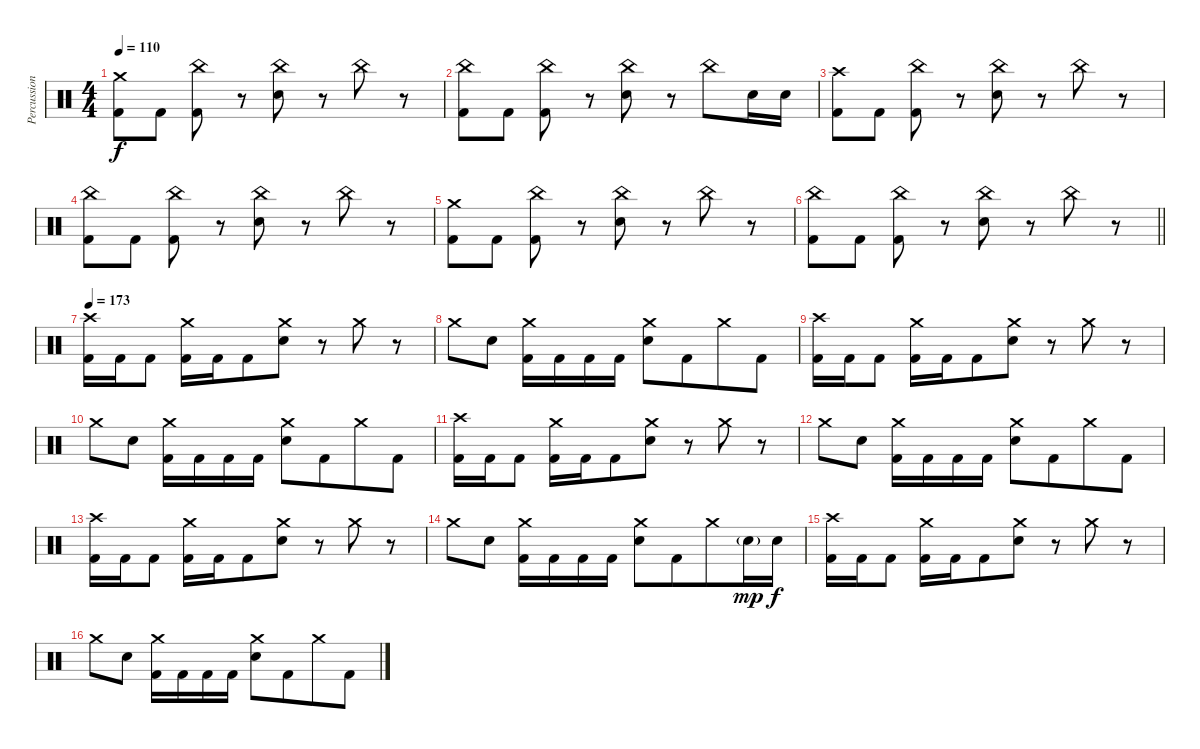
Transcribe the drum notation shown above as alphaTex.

\track ("Percussion" "Percussion") {instrument percussion}
\staff {score}
\articulation defaults
\ts (4 4)
\tempo 110
\clef neutral
\ks c
("Crash medium (hit)" "Kick (hit) 2").8{dy f beam merge} "Kick (hit) 2".8 ("China (hit)" "Kick (hit) 2").8 r.8{beam merge} ("China (hit)" "Electric Snare (hit)").8 r.8{beam merge} "China (hit)".8{beam merge} r.8 |
("China (hit)" "Kick (hit) 2").8{beam merge} "Kick (hit) 2".8 ("China (hit)" "Kick (hit) 2").8 r.8{beam merge} ("China (hit)" "Electric Snare (hit)").8 r.8{beam merge} "China (hit)".8{beam merge} "Electric Snare (hit)".16{beam merge} "Electric Snare (hit)".16 |
("Crash high (hit)" "Kick (hit) 2").8{beam merge} "Kick (hit) 2".8 ("China (hit)" "Kick (hit) 2").8 r.8{beam merge} ("China (hit)" "Electric Snare (hit)").8 r.8{beam merge} "China (hit)".8{beam merge} r.8 |
("China (hit)" "Kick (hit) 2").8{beam merge} "Kick (hit) 2".8 ("China (hit)" "Kick (hit) 2").8 r.8{beam merge} ("China (hit)" "Electric Snare (hit)").8 r.8{beam merge} "China (hit)".8{beam merge} r.8 |
("Crash medium (hit)" "Kick (hit) 2").8{beam merge} "Kick (hit) 2".8 ("China (hit)" "Kick (hit) 2").8 r.8{beam merge} ("China (hit)" "Electric Snare (hit)").8 r.8{beam merge} "China (hit)".8{beam merge} r.8 |
\barLineRight lightlight
("China (hit)" "Kick (hit) 2").8{beam merge} "Kick (hit) 2".8 ("China (hit)" "Kick (hit) 2").8 r.8{beam merge} ("China (hit)" "Electric Snare (hit)").8 r.8{beam merge} "China (hit)".8{beam merge} r.8 |
\section ("" "")
\tempo 173
("Crash high (hit)" "Kick (hit) 2").16 "Kick (hit) 2".16 "Kick (hit) 2".8 ("Crash medium (hit)" "Kick (hit) 2").16 "Kick (hit) 2".16 "Kick (hit) 2".8{beam merge} ("Crash medium (hit)" "Electric Snare (hit)").8 r.8 "Crash medium (hit)".8 r.8 |
"Crash medium (hit)".8 "Electric Snare (hit)".8 ("Crash medium (hit)" "Kick (hit) 2").16 "Kick (hit) 2".16 "Kick (hit) 2".16 "Kick (hit) 2".16 ("Crash medium (hit)" "Electric Snare (hit)").8{beam merge} "Kick (hit) 2".8{beam merge} "Crash medium (hit)".8{beam merge} "Kick (hit) 2".8 |
("Crash high (hit)" "Kick (hit) 2").16 "Kick (hit) 2".16 "Kick (hit) 2".8 ("Crash medium (hit)" "Kick (hit) 2").16 "Kick (hit) 2".16 "Kick (hit) 2".8{beam merge} ("Crash medium (hit)" "Electric Snare (hit)").8 r.8 "Crash medium (hit)".8 r.8 |
"Crash medium (hit)".8 "Electric Snare (hit)".8 ("Crash medium (hit)" "Kick (hit) 2").16 "Kick (hit) 2".16 "Kick (hit) 2".16 "Kick (hit) 2".16 ("Crash medium (hit)" "Electric Snare (hit)").8{beam merge} "Kick (hit) 2".8{beam merge} "Crash medium (hit)".8{beam merge} "Kick (hit) 2".8 |
("Crash high (hit)" "Kick (hit) 2").16 "Kick (hit) 2".16 "Kick (hit) 2".8 ("Crash medium (hit)" "Kick (hit) 2").16 "Kick (hit) 2".16 "Kick (hit) 2".8{beam merge} ("Crash medium (hit)" "Electric Snare (hit)").8 r.8 "Crash medium (hit)".8 r.8 |
"Crash medium (hit)".8 "Electric Snare (hit)".8 ("Crash medium (hit)" "Kick (hit) 2").16 "Kick (hit) 2".16 "Kick (hit) 2".16 "Kick (hit) 2".16 ("Crash medium (hit)" "Electric Snare (hit)").8{beam merge} "Kick (hit) 2".8{beam merge} "Crash medium (hit)".8{beam merge} "Kick (hit) 2".8 |
("Crash high (hit)" "Kick (hit) 2").16 "Kick (hit) 2".16 "Kick (hit) 2".8 ("Crash medium (hit)" "Kick (hit) 2").16 "Kick (hit) 2".16 "Kick (hit) 2".8{beam merge} ("Crash medium (hit)" "Electric Snare (hit)").8 r.8 "Crash medium (hit)".8 r.8 |
"Crash medium (hit)".8 "Electric Snare (hit)".8 ("Crash medium (hit)" "Kick (hit) 2").16 "Kick (hit) 2".16 "Kick (hit) 2".16 "Kick (hit) 2".16 ("Crash medium (hit)" "Electric Snare (hit)").8{beam merge} "Kick (hit) 2".8{beam merge} "Crash medium (hit)".8{beam merge} "Electric Snare (hit)"{g}.16{dy mp beam merge} "Electric Snare (hit)".16{dy f} |
("Crash high (hit)" "Kick (hit) 2").16 "Kick (hit) 2".16 "Kick (hit) 2".8 ("Crash medium (hit)" "Kick (hit) 2").16 "Kick (hit) 2".16 "Kick (hit) 2".8{beam merge} ("Crash medium (hit)" "Electric Snare (hit)").8 r.8 "Crash medium (hit)".8 r.8 |
"Crash medium (hit)".8 "Electric Snare (hit)".8 ("Crash medium (hit)" "Kick (hit) 2").16 "Kick (hit) 2".16 "Kick (hit) 2".16 "Kick (hit) 2".16 ("Crash medium (hit)" "Electric Snare (hit)").8{beam merge} "Kick (hit) 2".8{beam merge} "Crash medium (hit)".8{beam merge} "Kick (hit) 2".8
